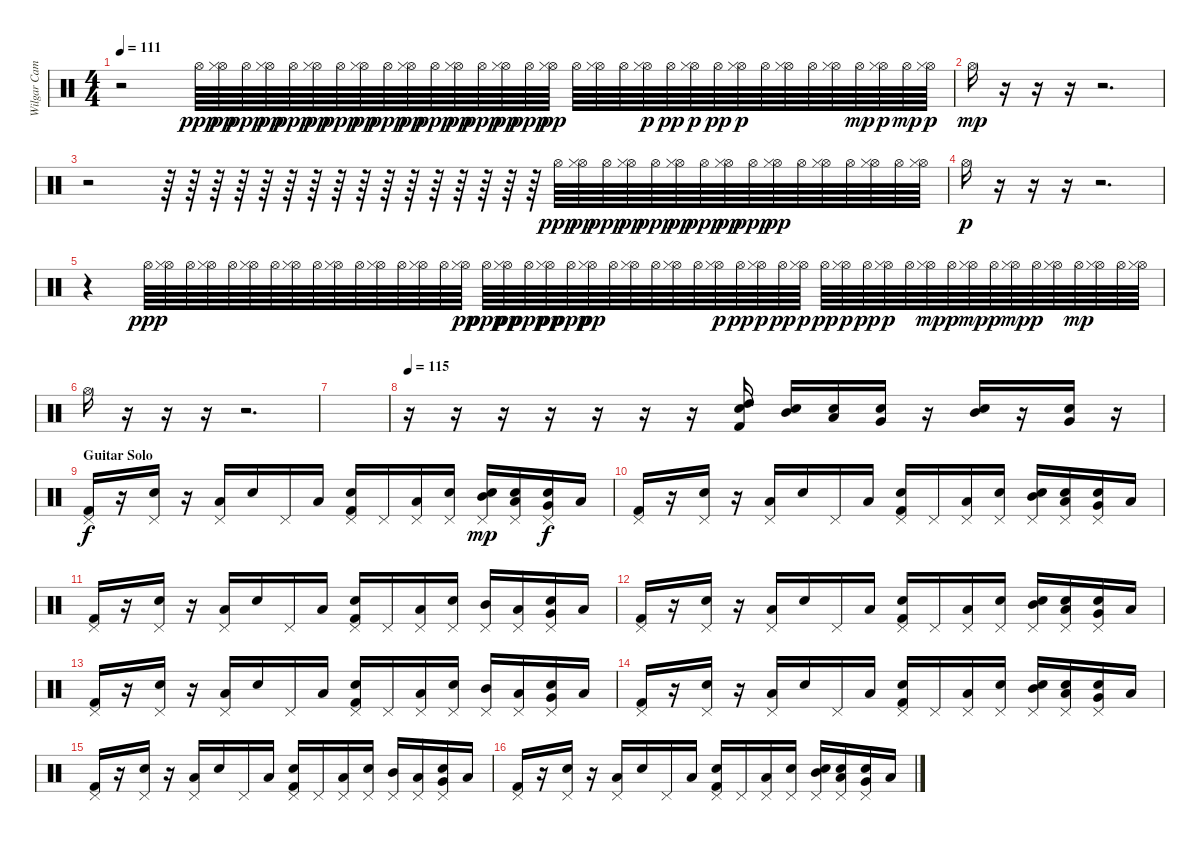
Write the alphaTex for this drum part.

\track ("Wilgar Campbell" "Wilgar Cam") {instrument percussion}
\staff {score}
\articulation defaults
\ts (4 4)
\tempo 111
\clef neutral
\ks c
r.2{dy mp} "Hi-Hat (open)".64{dy ppp} ("Hi-Hat (open)" "Hi-Hat (closed)").64{dy pp} "Hi-Hat (open)".64{dy ppp} ("Hi-Hat (open)" "Hi-Hat (closed)").64{dy pp} "Hi-Hat (open)".64{dy ppp} ("Hi-Hat (open)" "Hi-Hat (closed)").64{dy pp} "Hi-Hat (open)".64{dy ppp} ("Hi-Hat (open)" "Hi-Hat (closed)").64{dy pp} "Hi-Hat (open)".64{dy ppp} ("Hi-Hat (open)" "Hi-Hat (closed)").64{dy pp} "Hi-Hat (open)".64{dy ppp} ("Hi-Hat (open)" "Hi-Hat (closed)").64{dy pp} "Hi-Hat (open)".64{dy ppp} ("Hi-Hat (open)" "Hi-Hat (closed)").64{dy pp} "Hi-Hat (open)".64{dy ppp} ("Hi-Hat (open)" "Hi-Hat (closed)").64{dy pp} "Hi-Hat (open)".64 ("Hi-Hat (open)" "Hi-Hat (closed)").64 "Hi-Hat (open)".64 ("Hi-Hat (open)" "Hi-Hat (closed)").64{dy p} "Hi-Hat (open)".64{dy pp} ("Hi-Hat (open)" "Hi-Hat (closed)").64{dy p} "Hi-Hat (open)".64{dy pp} ("Hi-Hat (open)" "Hi-Hat (closed)").64{dy p} "Hi-Hat (open)".64 ("Hi-Hat (open)" "Hi-Hat (closed)").64 "Hi-Hat (open)".64 ("Hi-Hat (open)" "Hi-Hat (closed)").64 "Hi-Hat (open)".64{dy mp} ("Hi-Hat (open)" "Hi-Hat (closed)").64{dy p} "Hi-Hat (open)".64{dy mp} ("Hi-Hat (open)" "Hi-Hat (closed)").64{dy p} |
"Hi-Hat (open)".16{dy mp} r.16 r.16 r.16 r.2{d} |
r.2 r.64 r.64 r.64 r.64 r.64 r.64 r.64 r.64 r.64 r.64 r.64 r.64 r.64 r.64 r.64 r.64 "Hi-Hat (open)".64{dy ppp} ("Hi-Hat (open)" "Hi-Hat (closed)").64{dy pp} "Hi-Hat (open)".64{dy ppp} ("Hi-Hat (open)" "Hi-Hat (closed)").64{dy pp} "Hi-Hat (open)".64{dy ppp} ("Hi-Hat (open)" "Hi-Hat (closed)").64{dy pp} "Hi-Hat (open)".64{dy ppp} ("Hi-Hat (open)" "Hi-Hat (closed)").64{dy pp} "Hi-Hat (open)".64{dy ppp} ("Hi-Hat (open)" "Hi-Hat (closed)").64{dy pp} "Hi-Hat (open)".64 ("Hi-Hat (open)" "Hi-Hat (closed)").64 "Hi-Hat (open)".64 ("Hi-Hat (open)" "Hi-Hat (closed)").64 "Hi-Hat (open)".64 ("Hi-Hat (open)" "Hi-Hat (closed)").64 |
"Hi-Hat (open)".16{dy p} r.16 r.16 r.16 r.2{d} |
r.4 "Hi-Hat (open)".64{dy ppp} ("Hi-Hat (open)" "Hi-Hat (closed)").64 "Hi-Hat (open)".64 ("Hi-Hat (open)" "Hi-Hat (closed)").64 "Hi-Hat (open)".64 ("Hi-Hat (open)" "Hi-Hat (closed)").64 "Hi-Hat (open)".64 ("Hi-Hat (open)" "Hi-Hat (closed)").64 "Hi-Hat (open)".64 ("Hi-Hat (open)" "Hi-Hat (closed)").64 "Hi-Hat (open)".64 ("Hi-Hat (open)" "Hi-Hat (closed)").64 "Hi-Hat (open)".64 ("Hi-Hat (open)" "Hi-Hat (closed)").64 "Hi-Hat (open)".64 ("Hi-Hat (open)" "Hi-Hat (closed)").64{dy pp} "Hi-Hat (open)".64{dy ppp} ("Hi-Hat (open)" "Hi-Hat (closed)").64{dy pp} "Hi-Hat (open)".64{dy ppp} ("Hi-Hat (open)" "Hi-Hat (closed)").64{dy pp} "Hi-Hat (open)".64{dy ppp} ("Hi-Hat (open)" "Hi-Hat (closed)").64{dy pp} "Hi-Hat (open)".64 ("Hi-Hat (open)" "Hi-Hat (closed)").64 "Hi-Hat (open)".64 ("Hi-Hat (open)" "Hi-Hat (closed)").64 "Hi-Hat (open)".64 ("Hi-Hat (open)" "Hi-Hat (closed)").64{dy p} "Hi-Hat (open)".64{dy pp} ("Hi-Hat (open)" "Hi-Hat (closed)").64{dy p} "Hi-Hat (open)".64{dy pp} ("Hi-Hat (open)" "Hi-Hat (closed)").64{dy p} "Hi-Hat (open)".64{dy pp} ("Hi-Hat (open)" "Hi-Hat (closed)").64{dy p} "Hi-Hat (open)".64{dy pp} ("Hi-Hat (open)" "Hi-Hat (closed)").64{dy p} "Hi-Hat (open)".64 ("Hi-Hat (open)" "Hi-Hat (closed)").64{dy mp} "Hi-Hat (open)".64{dy p} ("Hi-Hat (open)" "Hi-Hat (closed)").64{dy mp} "Hi-Hat (open)".64{dy p} ("Hi-Hat (open)" "Hi-Hat (closed)").64{dy mp} "Hi-Hat (open)".64{dy p} ("Hi-Hat (open)" "Hi-Hat (closed)").64 "Hi-Hat (open)".64{dy mp} ("Hi-Hat (open)" "Hi-Hat (closed)").64 "Hi-Hat (open)".64 ("Hi-Hat (open)" "Hi-Hat (closed)").64 |
"Hi-Hat (open)".16 r.16 r.16 r.16 r.2{d} |
|
\tempo 115
r.16 r.16 r.16 r.16 r.16 r.16 r.16 ("Snare (hit) 2" "High Tom (hit)" "Kick (hit) 2").16 ("Snare (hit) 2" "Mid Tom (hit)").16 ("Snare (hit) 2" "Low Tom (hit)").16 ("Snare (hit) 2" "Very Low Tom (hit)").16 r.16 ("Snare (hit) 2" "Mid Tom (hit)").16 r.16 ("Snare (hit) 2" "Very Low Tom (hit)").16 r.16 |
\section ("" "Guitar Solo")
("Pedal Hi-Hat (hit)" "Kick (hit) 2").16{dy f} r.16 ("Snare (hit) 2" "Pedal Hi-Hat (hit)").16 r.16 ("Low Tom (hit)" "Pedal Hi-Hat (hit)").16 "Snare (hit) 2".16 "Pedal Hi-Hat (hit)".16 "Low Tom (hit)".16 ("Snare (hit) 2" "Pedal Hi-Hat (hit)" "Kick (hit) 2").16 "Pedal Hi-Hat (hit)".16 ("Low Tom (hit)" "Pedal Hi-Hat (hit)").16 ("Snare (hit) 2" "Pedal Hi-Hat (hit)").16 ("Mid Tom (hit)" "Snare (hit) 2" "Pedal Hi-Hat (hit)").16{dy mp} ("Low Tom (hit)" "Snare (hit) 2" "Pedal Hi-Hat (hit)").16 ("Very Low Tom (hit)" "Snare (hit) 2" "Pedal Hi-Hat (hit)").16{dy f} "Low Tom (hit)".16 |
("Pedal Hi-Hat (hit)" "Kick (hit) 2").16 r.16 ("Snare (hit) 2" "Pedal Hi-Hat (hit)").16 r.16 ("Low Tom (hit)" "Pedal Hi-Hat (hit)").16 "Snare (hit) 2".16 "Pedal Hi-Hat (hit)".16 "Low Tom (hit)".16 ("Snare (hit) 2" "Pedal Hi-Hat (hit)" "Kick (hit) 2").16 "Pedal Hi-Hat (hit)".16 ("Low Tom (hit)" "Pedal Hi-Hat (hit)").16 ("Snare (hit) 2" "Pedal Hi-Hat (hit)").16 ("Mid Tom (hit)" "Electric Snare (hit)" "Pedal Hi-Hat (hit)").16 ("Low Tom (hit)" "Electric Snare (hit)" "Pedal Hi-Hat (hit)").16 ("Very Low Tom (hit)" "Snare (hit) 2" "Pedal Hi-Hat (hit)").16 "Low Tom (hit)".16 |
("Pedal Hi-Hat (hit)" "Kick (hit) 2").16 r.16 ("Snare (hit) 2" "Pedal Hi-Hat (hit)").16 r.16 ("Low Tom (hit)" "Pedal Hi-Hat (hit)").16 "Snare (hit) 2".16 "Pedal Hi-Hat (hit)".16 "Low Tom (hit)".16 ("Snare (hit) 2" "Pedal Hi-Hat (hit)" "Kick (hit) 2").16 "Pedal Hi-Hat (hit)".16 ("Low Tom (hit)" "Pedal Hi-Hat (hit)").16 ("Snare (hit) 2" "Pedal Hi-Hat (hit)").16 ("Mid Tom (hit)" "Pedal Hi-Hat (hit)").16 ("Low Tom (hit)" "Pedal Hi-Hat (hit)").16 ("Very Low Tom (hit)" "Snare (hit) 2" "Pedal Hi-Hat (hit)").16 "Low Tom (hit)".16 |
("Pedal Hi-Hat (hit)" "Kick (hit) 2").16 r.16 ("Snare (hit) 2" "Pedal Hi-Hat (hit)").16 r.16 ("Low Tom (hit)" "Pedal Hi-Hat (hit)").16 "Snare (hit) 2".16 "Pedal Hi-Hat (hit)".16 "Low Tom (hit)".16 ("Snare (hit) 2" "Pedal Hi-Hat (hit)" "Kick (hit) 2").16 "Pedal Hi-Hat (hit)".16 ("Low Tom (hit)" "Pedal Hi-Hat (hit)").16 ("Snare (hit) 2" "Pedal Hi-Hat (hit)").16 ("Mid Tom (hit)" "Electric Snare (hit)" "Pedal Hi-Hat (hit)").16 ("Low Tom (hit)" "Electric Snare (hit)" "Pedal Hi-Hat (hit)").16 ("Very Low Tom (hit)" "Snare (hit) 2" "Pedal Hi-Hat (hit)").16 "Low Tom (hit)".16 |
("Pedal Hi-Hat (hit)" "Kick (hit) 2").16 r.16 ("Snare (hit) 2" "Pedal Hi-Hat (hit)").16 r.16 ("Low Tom (hit)" "Pedal Hi-Hat (hit)").16 "Snare (hit) 2".16 "Pedal Hi-Hat (hit)".16 "Low Tom (hit)".16 ("Snare (hit) 2" "Pedal Hi-Hat (hit)" "Kick (hit) 2").16 "Pedal Hi-Hat (hit)".16 ("Low Tom (hit)" "Pedal Hi-Hat (hit)").16 ("Snare (hit) 2" "Pedal Hi-Hat (hit)").16 ("Mid Tom (hit)" "Pedal Hi-Hat (hit)").16 ("Low Tom (hit)" "Pedal Hi-Hat (hit)").16 ("Very Low Tom (hit)" "Snare (hit) 2" "Pedal Hi-Hat (hit)").16 "Low Tom (hit)".16 |
("Pedal Hi-Hat (hit)" "Kick (hit) 2").16 r.16 ("Snare (hit) 2" "Pedal Hi-Hat (hit)").16 r.16 ("Low Tom (hit)" "Pedal Hi-Hat (hit)").16 "Snare (hit) 2".16 "Pedal Hi-Hat (hit)".16 "Low Tom (hit)".16 ("Snare (hit) 2" "Pedal Hi-Hat (hit)" "Kick (hit) 2").16 "Pedal Hi-Hat (hit)".16 ("Low Tom (hit)" "Pedal Hi-Hat (hit)").16 ("Snare (hit) 2" "Pedal Hi-Hat (hit)").16 ("Mid Tom (hit)" "Electric Snare (hit)" "Pedal Hi-Hat (hit)").16 ("Low Tom (hit)" "Electric Snare (hit)" "Pedal Hi-Hat (hit)").16 ("Very Low Tom (hit)" "Snare (hit) 2" "Pedal Hi-Hat (hit)").16 "Low Tom (hit)".16 |
("Pedal Hi-Hat (hit)" "Kick (hit) 2").16 r.16 ("Snare (hit) 2" "Pedal Hi-Hat (hit)").16 r.16 ("Low Tom (hit)" "Pedal Hi-Hat (hit)").16 "Snare (hit) 2".16 "Pedal Hi-Hat (hit)".16 "Low Tom (hit)".16 ("Snare (hit) 2" "Pedal Hi-Hat (hit)" "Kick (hit) 2").16 "Pedal Hi-Hat (hit)".16 ("Low Tom (hit)" "Pedal Hi-Hat (hit)").16 ("Snare (hit) 2" "Pedal Hi-Hat (hit)").16 ("Mid Tom (hit)" "Pedal Hi-Hat (hit)").16 ("Low Tom (hit)" "Pedal Hi-Hat (hit)").16 ("Very Low Tom (hit)" "Snare (hit) 2" "Pedal Hi-Hat (hit)").16 "Low Tom (hit)".16 |
("Pedal Hi-Hat (hit)" "Kick (hit) 2").16 r.16 ("Snare (hit) 2" "Pedal Hi-Hat (hit)").16 r.16 ("Low Tom (hit)" "Pedal Hi-Hat (hit)").16 "Snare (hit) 2".16 "Pedal Hi-Hat (hit)".16 "Low Tom (hit)".16 ("Snare (hit) 2" "Pedal Hi-Hat (hit)" "Kick (hit) 2").16 "Pedal Hi-Hat (hit)".16 ("Low Tom (hit)" "Pedal Hi-Hat (hit)").16 ("Snare (hit) 2" "Pedal Hi-Hat (hit)").16 ("Mid Tom (hit)" "Electric Snare (hit)" "Pedal Hi-Hat (hit)").16 ("Low Tom (hit)" "Electric Snare (hit)" "Pedal Hi-Hat (hit)").16 ("Very Low Tom (hit)" "Snare (hit) 2" "Pedal Hi-Hat (hit)").16 "Low Tom (hit)".16
